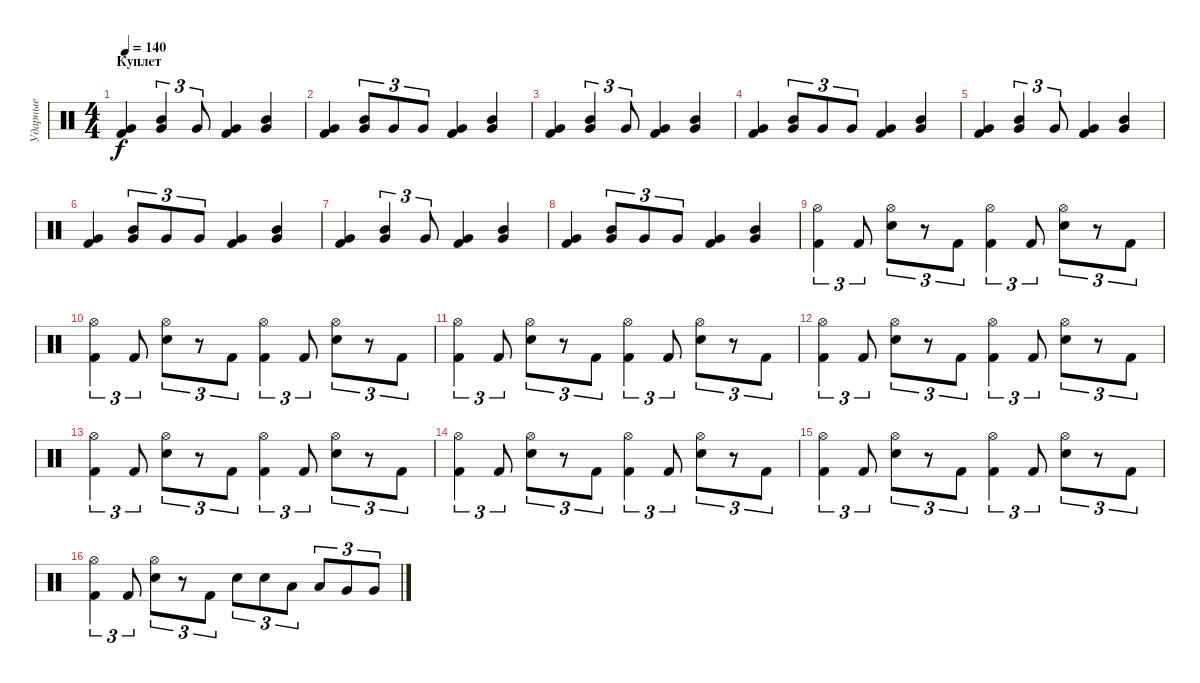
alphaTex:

\track ("Ударные" "Ударные") {instrument percussion}
\staff {score}
\articulation defaults
\ts (4 4)
\section ("" "Куплет")
\tempo 140
\clef neutral
\ks c
("Very Low Tom (hit)" "Kick (hit) 2").4{dy f} ("Mid Tom (hit)" "Very Low Tom (hit)").4{tu (3 2)} "Very Low Tom (hit)".8{tu (3 2)} ("Very Low Tom (hit)" "Kick (hit) 2").4 ("Mid Tom (hit)" "Very Low Tom (hit)").4 |
("Very Low Tom (hit)" "Kick (hit) 2").4 ("Mid Tom (hit)" "Very Low Tom (hit)").8{tu (3 2)} "Very Low Tom (hit)".8{tu (3 2)} "Very Low Tom (hit)".8{tu (3 2)} ("Very Low Tom (hit)" "Kick (hit) 2").4 ("Mid Tom (hit)" "Very Low Tom (hit)").4 |
("Very Low Tom (hit)" "Kick (hit) 2").4 ("Mid Tom (hit)" "Very Low Tom (hit)").4{tu (3 2)} "Very Low Tom (hit)".8{tu (3 2)} ("Very Low Tom (hit)" "Kick (hit) 2").4 ("Mid Tom (hit)" "Very Low Tom (hit)").4 |
("Very Low Tom (hit)" "Kick (hit) 2").4 ("Mid Tom (hit)" "Very Low Tom (hit)").8{tu (3 2)} "Very Low Tom (hit)".8{tu (3 2)} "Very Low Tom (hit)".8{tu (3 2)} ("Very Low Tom (hit)" "Kick (hit) 2").4 ("Mid Tom (hit)" "Very Low Tom (hit)").4 |
("Very Low Tom (hit)" "Kick (hit) 2").4 ("Mid Tom (hit)" "Very Low Tom (hit)").4{tu (3 2)} "Very Low Tom (hit)".8{tu (3 2)} ("Very Low Tom (hit)" "Kick (hit) 2").4 ("Mid Tom (hit)" "Very Low Tom (hit)").4 |
("Very Low Tom (hit)" "Kick (hit) 2").4 ("Mid Tom (hit)" "Very Low Tom (hit)").8{tu (3 2)} "Very Low Tom (hit)".8{tu (3 2)} "Very Low Tom (hit)".8{tu (3 2)} ("Very Low Tom (hit)" "Kick (hit) 2").4 ("Mid Tom (hit)" "Very Low Tom (hit)").4 |
("Very Low Tom (hit)" "Kick (hit) 2").4 ("Mid Tom (hit)" "Very Low Tom (hit)").4{tu (3 2)} "Very Low Tom (hit)".8{tu (3 2)} ("Very Low Tom (hit)" "Kick (hit) 2").4 ("Mid Tom (hit)" "Very Low Tom (hit)").4 |
("Very Low Tom (hit)" "Kick (hit) 2").4 ("Mid Tom (hit)" "Very Low Tom (hit)").8{tu (3 2)} "Very Low Tom (hit)".8{tu (3 2)} "Very Low Tom (hit)".8{tu (3 2)} ("Very Low Tom (hit)" "Kick (hit) 2").4 ("Mid Tom (hit)" "Very Low Tom (hit)").4 |
("Hi-Hat (open)" "Kick (hit) 2").4{tu (3 2)} "Kick (hit) 2".8{tu (3 2)} ("Hi-Hat (open)" "Electric Snare (hit)").8{tu (3 2)} r.8{tu (3 2)} "Kick (hit) 2".8{tu (3 2)} ("Hi-Hat (open)" "Kick (hit) 2").4{tu (3 2)} "Kick (hit) 2".8{tu (3 2)} ("Hi-Hat (open)" "Electric Snare (hit)").8{tu (3 2)} r.8{tu (3 2)} "Kick (hit) 2".8{tu (3 2)} |
("Hi-Hat (open)" "Kick (hit) 2").4{tu (3 2)} "Kick (hit) 2".8{tu (3 2)} ("Hi-Hat (open)" "Electric Snare (hit)").8{tu (3 2)} r.8{tu (3 2)} "Kick (hit) 2".8{tu (3 2)} ("Hi-Hat (open)" "Kick (hit) 2").4{tu (3 2)} "Kick (hit) 2".8{tu (3 2)} ("Hi-Hat (open)" "Electric Snare (hit)").8{tu (3 2)} r.8{tu (3 2)} "Kick (hit) 2".8{tu (3 2)} |
("Hi-Hat (open)" "Kick (hit) 2").4{tu (3 2)} "Kick (hit) 2".8{tu (3 2)} ("Hi-Hat (open)" "Electric Snare (hit)").8{tu (3 2)} r.8{tu (3 2)} "Kick (hit) 2".8{tu (3 2)} ("Hi-Hat (open)" "Kick (hit) 2").4{tu (3 2)} "Kick (hit) 2".8{tu (3 2)} ("Hi-Hat (open)" "Electric Snare (hit)").8{tu (3 2)} r.8{tu (3 2)} "Kick (hit) 2".8{tu (3 2)} |
("Hi-Hat (open)" "Kick (hit) 2").4{tu (3 2)} "Kick (hit) 2".8{tu (3 2)} ("Hi-Hat (open)" "Electric Snare (hit)").8{tu (3 2)} r.8{tu (3 2)} "Kick (hit) 2".8{tu (3 2)} ("Hi-Hat (open)" "Kick (hit) 2").4{tu (3 2)} "Kick (hit) 2".8{tu (3 2)} ("Hi-Hat (open)" "Electric Snare (hit)").8{tu (3 2)} r.8{tu (3 2)} "Kick (hit) 2".8{tu (3 2)} |
("Hi-Hat (open)" "Kick (hit) 2").4{tu (3 2)} "Kick (hit) 2".8{tu (3 2)} ("Hi-Hat (open)" "Electric Snare (hit)").8{tu (3 2)} r.8{tu (3 2)} "Kick (hit) 2".8{tu (3 2)} ("Hi-Hat (open)" "Kick (hit) 2").4{tu (3 2)} "Kick (hit) 2".8{tu (3 2)} ("Hi-Hat (open)" "Electric Snare (hit)").8{tu (3 2)} r.8{tu (3 2)} "Kick (hit) 2".8{tu (3 2)} |
("Hi-Hat (open)" "Kick (hit) 2").4{tu (3 2)} "Kick (hit) 2".8{tu (3 2)} ("Hi-Hat (open)" "Electric Snare (hit)").8{tu (3 2)} r.8{tu (3 2)} "Kick (hit) 2".8{tu (3 2)} ("Hi-Hat (open)" "Kick (hit) 2").4{tu (3 2)} "Kick (hit) 2".8{tu (3 2)} ("Hi-Hat (open)" "Electric Snare (hit)").8{tu (3 2)} r.8{tu (3 2)} "Kick (hit) 2".8{tu (3 2)} |
("Hi-Hat (open)" "Kick (hit) 2").4{tu (3 2)} "Kick (hit) 2".8{tu (3 2)} ("Hi-Hat (open)" "Electric Snare (hit)").8{tu (3 2)} r.8{tu (3 2)} "Kick (hit) 2".8{tu (3 2)} ("Hi-Hat (open)" "Kick (hit) 2").4{tu (3 2)} "Kick (hit) 2".8{tu (3 2)} ("Hi-Hat (open)" "Electric Snare (hit)").8{tu (3 2)} r.8{tu (3 2)} "Kick (hit) 2".8{tu (3 2)} |
("Hi-Hat (open)" "Kick (hit) 2").4{tu (3 2)} "Kick (hit) 2".8{tu (3 2)} ("Hi-Hat (open)" "Electric Snare (hit)").8{tu (3 2)} r.8{tu (3 2)} "Kick (hit) 2".8{tu (3 2)} "Electric Snare (hit)".8{tu (3 2)} "Electric Snare (hit)".8{tu (3 2)} "Low Tom (hit)".8{tu (3 2)} "Low Tom (hit)".8{tu (3 2)} "Very Low Tom (hit)".8{tu (3 2)} "Very Low Tom (hit)".8{tu (3 2)}
